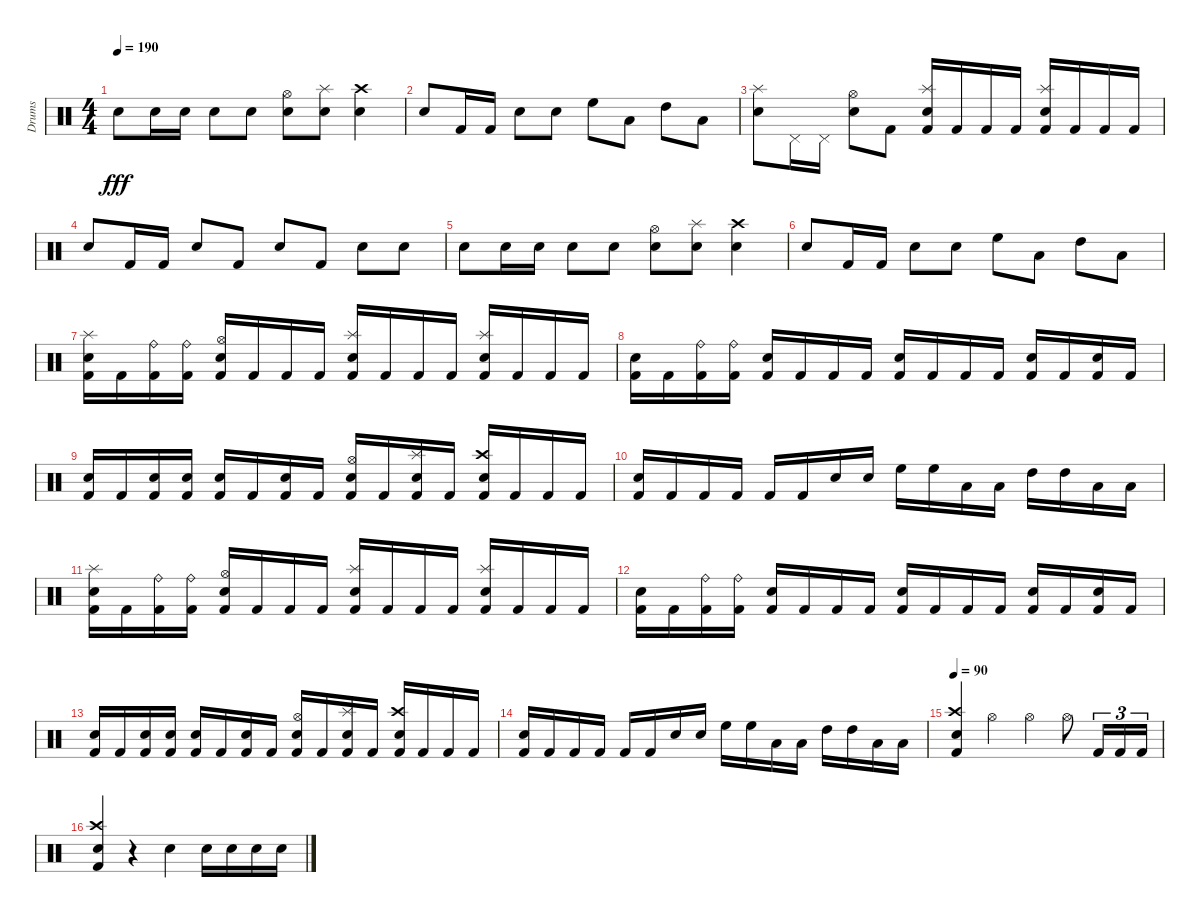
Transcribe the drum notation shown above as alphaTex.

\track ("Drums" "Drums") {instrument percussion}
\staff {score}
\articulation defaults
\ts (4 4)
\tempo 190
\clef neutral
\ks c "Snare (hit) 2".8{dy fff} "Snare (hit) 2".16 "Snare (hit) 2".16 "Snare (hit) 2".8 "Snare (hit) 2".8
("Hi-Hat (open)" "Snare (hit) 2").8 ("Splash (hit)" "Snare (hit) 2").8 ("Crash high (hit)" "Snare (hit) 2").4 |
"Snare (hit) 2".8 "Kick (hit) 2".16 "Kick (hit) 2".16 "Snare (hit) 2".8 "Snare (hit) 2".8 "High Floor Tom (hit)".8 "Low Tom (hit)".8 "High Tom (hit)".8 "Low Tom (hit)".8 |
("Splash (hit)" "Snare (hit) 2").8 "Pedal Hi-Hat (hit)".16 "Pedal Hi-Hat (hit)".16 ("Hi-Hat (open)" "Snare (hit) 2").8 "Kick (hit) 2".8 ("Splash (hit)" "Snare (hit) 2" "Kick (hit) 2").16 "Kick (hit) 2".16 "Kick (hit) 2".16 "Kick (hit) 2".16 ("Splash (hit)" "Snare (hit) 2" "Kick (hit) 2").16 "Kick (hit) 2".16 "Kick (hit) 2".16 "Kick (hit) 2".16 |
"Snare (hit) 2".8 "Kick (hit) 2".16 "Kick (hit) 2".16 "Snare (hit) 2".8 "Kick (hit) 2".8 "Snare (hit) 2".8 "Kick (hit) 2".8 "Snare (hit) 2".8 "Snare (hit) 2".8 |
"Snare (hit) 2".8 "Snare (hit) 2".16 "Snare (hit) 2".16 "Snare (hit) 2".8 "Snare (hit) 2".8 ("Hi-Hat (open)" "Snare (hit) 2").8 ("Splash (hit)" "Snare (hit) 2").8 ("Crash high (hit)" "Snare (hit) 2").4 |
"Snare (hit) 2".8 "Kick (hit) 2".16 "Kick (hit) 2".16 "Snare (hit) 2".8 "Snare (hit) 2".8 "High Floor Tom (hit)".8 "Low Tom (hit)".8 "High Tom (hit)".8 "Low Tom (hit)".8 |
("Splash (hit)" "Snare (hit) 2" "Kick (hit) 2").16 "Kick (hit) 2".16 ("Ride (bell)" "Kick (hit) 2").16 ("Ride (bell)" "Kick (hit) 2").16 ("Hi-Hat (open)" "Snare (hit) 2" "Kick (hit) 2").16 "Kick (hit) 2".16 "Kick (hit) 2".16 "Kick (hit) 2".16 ("Splash (hit)" "Snare (hit) 2" "Kick (hit) 2").16 "Kick (hit) 2".16 "Kick (hit) 2".16 "Kick (hit) 2".16 ("Splash (hit)" "Snare (hit) 2" "Kick (hit) 2").16 "Kick (hit) 2".16 "Kick (hit) 2".16 "Kick (hit) 2".16 |
("Snare (hit) 2" "Kick (hit) 2").16 "Kick (hit) 2".16 ("Ride (bell)" "Kick (hit) 2").16 ("Ride (bell)" "Kick (hit) 2").16 ("Snare (hit) 2" "Kick (hit) 2").16 "Kick (hit) 2".16 "Kick (hit) 2".16 "Kick (hit) 2".16 ("Snare (hit) 2" "Kick (hit) 2").16 "Kick (hit) 2".16 "Kick (hit) 2".16 "Kick (hit) 2".16 ("Snare (hit) 2" "Kick (hit) 2").16 "Kick (hit) 2".16 ("Snare (hit) 2" "Kick (hit) 2").16 "Kick (hit) 2".16 |
("Snare (hit) 2" "Kick (hit) 2").16 "Kick (hit) 2".16 ("Snare (hit) 2" "Kick (hit) 2").16 ("Snare (hit) 2" "Kick (hit) 2").16 ("Snare (hit) 2" "Kick (hit) 2").16 "Kick (hit) 2".16 ("Snare (hit) 2" "Kick (hit) 2").16 "Kick (hit) 2".16 ("Hi-Hat (open)" "Snare (hit) 2" "Kick (hit) 2").16 "Kick (hit) 2".16 ("Splash (hit)" "Snare (hit) 2" "Kick (hit) 2").16 "Kick (hit) 2".16 ("Crash high (hit)" "Snare (hit) 2" "Kick (hit) 2").16 "Kick (hit) 2".16 "Kick (hit) 2".16 "Kick (hit) 2".16 |
("Snare (hit) 2" "Kick (hit) 2").16 "Kick (hit) 2".16 "Kick (hit) 2".16 "Kick (hit) 2".16 "Kick (hit) 2".16 "Kick (hit) 2".16 "Snare (hit) 2".16 "Snare (hit) 2".16 "High Floor Tom (hit)".16 "High Floor Tom (hit)".16 "Low Tom (hit)".16 "Low Tom (hit)".16 "High Tom (hit)".16 "High Tom (hit)".16 "Low Tom (hit)".16 "Low Tom (hit)".16 |
("Splash (hit)" "Snare (hit) 2" "Kick (hit) 2").16 "Kick (hit) 2".16 ("Ride (bell)" "Kick (hit) 2").16 ("Ride (bell)" "Kick (hit) 2").16 ("Hi-Hat (open)" "Snare (hit) 2" "Kick (hit) 2").16 "Kick (hit) 2".16 "Kick (hit) 2".16 "Kick (hit) 2".16 ("Splash (hit)" "Snare (hit) 2" "Kick (hit) 2").16 "Kick (hit) 2".16 "Kick (hit) 2".16 "Kick (hit) 2".16 ("Splash (hit)" "Snare (hit) 2" "Kick (hit) 2").16 "Kick (hit) 2".16 "Kick (hit) 2".16 "Kick (hit) 2".16 |
("Snare (hit) 2" "Kick (hit) 2").16 "Kick (hit) 2".16 ("Ride (bell)" "Kick (hit) 2").16 ("Ride (bell)" "Kick (hit) 2").16 ("Snare (hit) 2" "Kick (hit) 2").16 "Kick (hit) 2".16 "Kick (hit) 2".16 "Kick (hit) 2".16 ("Snare (hit) 2" "Kick (hit) 2").16 "Kick (hit) 2".16 "Kick (hit) 2".16 "Kick (hit) 2".16 ("Snare (hit) 2" "Kick (hit) 2").16 "Kick (hit) 2".16 ("Snare (hit) 2" "Kick (hit) 2").16 "Kick (hit) 2".16 |
("Snare (hit) 2" "Kick (hit) 2").16 "Kick (hit) 2".16 ("Snare (hit) 2" "Kick (hit) 2").16 ("Snare (hit) 2" "Kick (hit) 2").16 ("Snare (hit) 2" "Kick (hit) 2").16 "Kick (hit) 2".16 ("Snare (hit) 2" "Kick (hit) 2").16 "Kick (hit) 2".16 ("Hi-Hat (open)" "Snare (hit) 2" "Kick (hit) 2").16 "Kick (hit) 2".16 ("Splash (hit)" "Snare (hit) 2" "Kick (hit) 2").16 "Kick (hit) 2".16 ("Crash high (hit)" "Snare (hit) 2" "Kick (hit) 2").16 "Kick (hit) 2".16 "Kick (hit) 2".16 "Kick (hit) 2".16 |
("Snare (hit) 2" "Kick (hit) 2").16 "Kick (hit) 2".16 "Kick (hit) 2".16 "Kick (hit) 2".16 "Kick (hit) 2".16 "Kick (hit) 2".16 "Snare (hit) 2".16 "Snare (hit) 2".16 "High Floor Tom (hit)".16 "High Floor Tom (hit)".16 "Low Tom (hit)".16 "Low Tom (hit)".16 "High Tom (hit)".16 "High Tom (hit)".16 "Low Tom (hit)".16 "Low Tom (hit)".16 |
\tempo 90
("Crash high (hit)" "Snare (hit) 2" "Kick (hit) 2").4 "Hi-Hat (open)".4 "Hi-Hat (open)".4 "Hi-Hat (open)".8 "Kick (hit) 2".16{tu (3 2)} "Kick (hit) 2".16{tu (3 2)} "Kick (hit) 2".16{tu (3 2)} |
("Crash high (hit)" "Snare (hit) 2" "Kick (hit) 2").4 r.4 "Snare (hit) 2".4 "Snare (hit) 2".16 "Snare (hit) 2".16 "Snare (hit) 2".16 "Snare (hit) 2".16
